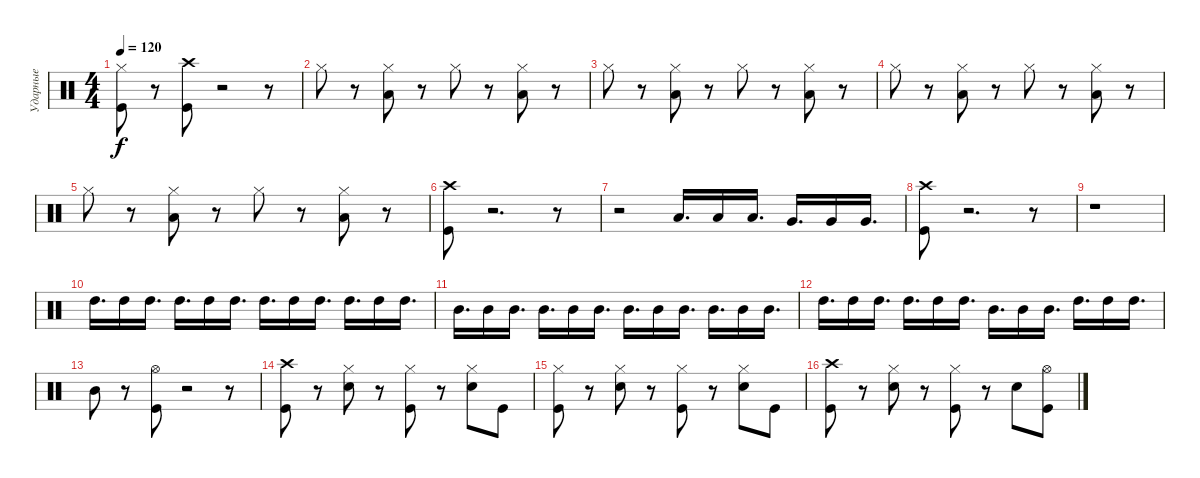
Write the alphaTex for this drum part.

\track ("Ударные" "Ударные") {instrument percussion}
\staff {score}
\articulation defaults
\ts (4 4)
\tempo 120
\clef neutral
\ks c
("Kick (hit)" "Hi-Hat (closed)").8{dy f} r.8 ("Kick (hit)" "Crash high (hit)").8 r.2 r.8 |
"Hi-Hat (closed)".8 r.8 ("Hi-Hat (closed)" "Low Floor Tom (hit)").8 r.8 "Hi-Hat (closed)".8 r.8 ("Hi-Hat (closed)" "Low Floor Tom (hit)").8 r.8 |
"Hi-Hat (closed)".8 r.8 ("Low Floor Tom (hit)" "Hi-Hat (closed)").8 r.8 "Hi-Hat (closed)".8 r.8 ("Low Floor Tom (hit)" "Hi-Hat (closed)").8 r.8 |
"Hi-Hat (closed)".8 r.8 ("Hi-Hat (closed)" "Low Floor Tom (hit)").8 r.8 "Hi-Hat (closed)".8 r.8 ("Hi-Hat (closed)" "Low Floor Tom (hit)").8 r.8 |
"Hi-Hat (closed)".8 r.8 ("Low Floor Tom (hit)" "Hi-Hat (closed)").8 r.8 "Hi-Hat (closed)".8 r.8 ("Low Floor Tom (hit)" "Hi-Hat (closed)").8 r.8 |
("Crash high (hit)" "Kick (hit)").8 r.2{d} r.8 |
r.2 "Low Floor Tom (hit)".16{d} "Low Floor Tom (hit)".16 "Low Floor Tom (hit)".16{d} "Very Low Tom (hit)".16{d} "Very Low Tom (hit)".16 "Very Low Tom (hit)".16{d} |
("Crash high (hit)" "Kick (hit)").8 r.2{d} r.8 |
r.1 |
"High Tom (hit)".16{d volume 9} "High Tom (hit)".16 "High Tom (hit)".16{d} "High Tom (hit)".16{d} "High Tom (hit)".16 "High Tom (hit)".16{d} "High Tom (hit)".16{d} "High Tom (hit)".16 "High Tom (hit)".16{d} "High Tom (hit)".16{d} "High Tom (hit)".16 "High Tom (hit)".16{d} |
"Mid Tom (hit)".16{d} "Mid Tom (hit)".16 "Mid Tom (hit)".16{d} "Mid Tom (hit)".16{d} "Mid Tom (hit)".16 "Mid Tom (hit)".16{d} "Mid Tom (hit)".16{d} "Mid Tom (hit)".16 "Mid Tom (hit)".16{d} "Mid Tom (hit)".16{d} "Mid Tom (hit)".16 "Mid Tom (hit)".16{d} |
"High Tom (hit)".16{d volume 16} "High Tom (hit)".16 "High Tom (hit)".16{d} "High Tom (hit)".16{d} "High Tom (hit)".16 "High Tom (hit)".16{d} "Mid Tom (hit)".16{d} "Mid Tom (hit)".16 "Mid Tom (hit)".16{d} "High Tom (hit)".16{d} "High Tom (hit)".16 "High Tom (hit)".16{d} |
"Mid Tom (hit)".8 r.8 ("Kick (hit)" "Hi-Hat (open)").8 r.2 r.8 |
("Crash high (hit)" "Kick (hit)").8 r.8 ("Hi-Hat (closed)" "Snare (hit) 2").8 r.8 ("Hi-Hat (closed)" "Kick (hit)").8 r.8 ("Hi-Hat (closed)" "Snare (hit) 2").8 "Kick (hit)".8 |
("Hi-Hat (closed)" "Kick (hit)").8 r.8 ("Hi-Hat (closed)" "Snare (hit) 2").8 r.8 ("Hi-Hat (closed)" "Kick (hit)").8 r.8 ("Hi-Hat (closed)" "Snare (hit) 2").8 "Kick (hit)".8 |
("Crash high (hit)" "Kick (hit)").8 r.8 ("Hi-Hat (closed)" "Snare (hit) 2").8 r.8 ("Hi-Hat (closed)" "Kick (hit)").8 r.8 "Snare (hit) 2".8 ("Hi-Hat (open)" "Kick (hit)").8
